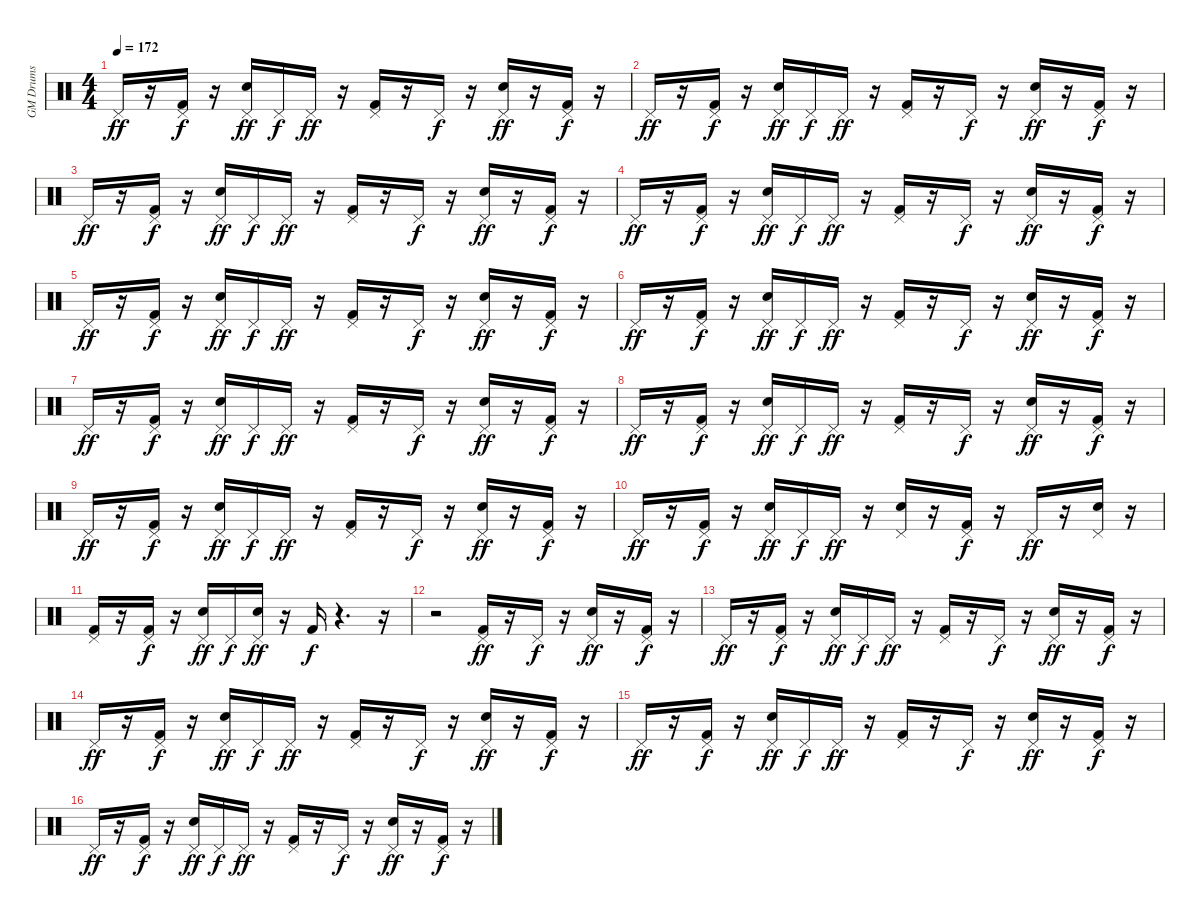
\track ("GM Drums" "GM Drums") {instrument percussion}
\staff {score}
\articulation defaults
\ts (4 4)
\tempo 172
\clef neutral
\ks c "Pedal Hi-Hat (hit)".16{dy ff}
r.16 ("Kick (hit) 2" "Pedal Hi-Hat (hit)").16{dy f} r.16 ("Snare (hit) 2" "Pedal Hi-Hat (hit)").16{dy ff} "Pedal Hi-Hat (hit)".16{dy f} "Pedal Hi-Hat (hit)".16{dy ff} r.16 ("Kick (hit) 2" "Pedal Hi-Hat (hit)").16 r.16 "Pedal Hi-Hat (hit)".16{dy f} r.16 ("Snare (hit) 2" "Pedal Hi-Hat (hit)").16{dy ff} r.16 ("Kick (hit) 2" "Pedal Hi-Hat (hit)").16{dy f} r.16 |
"Pedal Hi-Hat (hit)".16{dy ff} r.16 ("Kick (hit) 2" "Pedal Hi-Hat (hit)").16{dy f} r.16 ("Snare (hit) 2" "Pedal Hi-Hat (hit)").16{dy ff} "Pedal Hi-Hat (hit)".16{dy f} "Pedal Hi-Hat (hit)".16{dy ff} r.16 ("Kick (hit) 2" "Pedal Hi-Hat (hit)").16 r.16 "Pedal Hi-Hat (hit)".16{dy f} r.16 ("Snare (hit) 2" "Pedal Hi-Hat (hit)").16{dy ff} r.16 ("Kick (hit) 2" "Pedal Hi-Hat (hit)").16{dy f} r.16 |
"Pedal Hi-Hat (hit)".16{dy ff} r.16 ("Kick (hit) 2" "Pedal Hi-Hat (hit)").16{dy f} r.16 ("Snare (hit) 2" "Pedal Hi-Hat (hit)").16{dy ff} "Pedal Hi-Hat (hit)".16{dy f} "Pedal Hi-Hat (hit)".16{dy ff} r.16 ("Kick (hit) 2" "Pedal Hi-Hat (hit)").16 r.16 "Pedal Hi-Hat (hit)".16{dy f} r.16 ("Snare (hit) 2" "Pedal Hi-Hat (hit)").16{dy ff} r.16 ("Kick (hit) 2" "Pedal Hi-Hat (hit)").16{dy f} r.16 |
"Pedal Hi-Hat (hit)".16{dy ff} r.16 ("Kick (hit) 2" "Pedal Hi-Hat (hit)").16{dy f} r.16 ("Snare (hit) 2" "Pedal Hi-Hat (hit)").16{dy ff} "Pedal Hi-Hat (hit)".16{dy f} "Pedal Hi-Hat (hit)".16{dy ff} r.16 ("Kick (hit) 2" "Pedal Hi-Hat (hit)").16 r.16 "Pedal Hi-Hat (hit)".16{dy f} r.16 ("Snare (hit) 2" "Pedal Hi-Hat (hit)").16{dy ff} r.16 ("Kick (hit) 2" "Pedal Hi-Hat (hit)").16{dy f} r.16 |
"Pedal Hi-Hat (hit)".16{dy ff} r.16 ("Kick (hit) 2" "Pedal Hi-Hat (hit)").16{dy f} r.16 ("Snare (hit) 2" "Pedal Hi-Hat (hit)").16{dy ff} "Pedal Hi-Hat (hit)".16{dy f} "Pedal Hi-Hat (hit)".16{dy ff} r.16 ("Kick (hit) 2" "Pedal Hi-Hat (hit)").16 r.16 "Pedal Hi-Hat (hit)".16{dy f} r.16 ("Snare (hit) 2" "Pedal Hi-Hat (hit)").16{dy ff} r.16 ("Kick (hit) 2" "Pedal Hi-Hat (hit)").16{dy f} r.16 |
"Pedal Hi-Hat (hit)".16{dy ff} r.16 ("Kick (hit) 2" "Pedal Hi-Hat (hit)").16{dy f} r.16 ("Snare (hit) 2" "Pedal Hi-Hat (hit)").16{dy ff} "Pedal Hi-Hat (hit)".16{dy f} "Pedal Hi-Hat (hit)".16{dy ff} r.16 ("Kick (hit) 2" "Pedal Hi-Hat (hit)").16 r.16 "Pedal Hi-Hat (hit)".16{dy f} r.16 ("Snare (hit) 2" "Pedal Hi-Hat (hit)").16{dy ff} r.16 ("Kick (hit) 2" "Pedal Hi-Hat (hit)").16{dy f} r.16 |
"Pedal Hi-Hat (hit)".16{dy ff} r.16 ("Kick (hit) 2" "Pedal Hi-Hat (hit)").16{dy f} r.16 ("Snare (hit) 2" "Pedal Hi-Hat (hit)").16{dy ff} "Pedal Hi-Hat (hit)".16{dy f} "Pedal Hi-Hat (hit)".16{dy ff} r.16 ("Kick (hit) 2" "Pedal Hi-Hat (hit)").16 r.16 "Pedal Hi-Hat (hit)".16{dy f} r.16 ("Snare (hit) 2" "Pedal Hi-Hat (hit)").16{dy ff} r.16 ("Kick (hit) 2" "Pedal Hi-Hat (hit)").16{dy f} r.16 |
"Pedal Hi-Hat (hit)".16{dy ff} r.16 ("Kick (hit) 2" "Pedal Hi-Hat (hit)").16{dy f} r.16 ("Snare (hit) 2" "Pedal Hi-Hat (hit)").16{dy ff} "Pedal Hi-Hat (hit)".16{dy f} "Pedal Hi-Hat (hit)".16{dy ff} r.16 ("Kick (hit) 2" "Pedal Hi-Hat (hit)").16 r.16 "Pedal Hi-Hat (hit)".16{dy f} r.16 ("Snare (hit) 2" "Pedal Hi-Hat (hit)").16{dy ff} r.16 ("Kick (hit) 2" "Pedal Hi-Hat (hit)").16{dy f} r.16 |
"Pedal Hi-Hat (hit)".16{dy ff} r.16 ("Kick (hit) 2" "Pedal Hi-Hat (hit)").16{dy f} r.16 ("Snare (hit) 2" "Pedal Hi-Hat (hit)").16{dy ff} "Pedal Hi-Hat (hit)".16{dy f} "Pedal Hi-Hat (hit)".16{dy ff} r.16 ("Kick (hit) 2" "Pedal Hi-Hat (hit)").16 r.16 "Pedal Hi-Hat (hit)".16{dy f} r.16 ("Snare (hit) 2" "Pedal Hi-Hat (hit)").16{dy ff} r.16 ("Kick (hit) 2" "Pedal Hi-Hat (hit)").16{dy f} r.16 |
"Pedal Hi-Hat (hit)".16{dy ff} r.16 ("Kick (hit) 2" "Pedal Hi-Hat (hit)").16{dy f} r.16 ("Snare (hit) 2" "Pedal Hi-Hat (hit)").16{dy ff} "Pedal Hi-Hat (hit)".16{dy f} "Pedal Hi-Hat (hit)".16{dy ff} r.16 ("Snare (hit) 2" "Pedal Hi-Hat (hit)").16 r.16 ("Kick (hit) 2" "Pedal Hi-Hat (hit)").16{dy f} r.16 "Pedal Hi-Hat (hit)".16{dy ff} r.16 ("Snare (hit) 2" "Pedal Hi-Hat (hit)").16 r.16 |
("Kick (hit) 2" "Pedal Hi-Hat (hit)").16 r.16 ("Kick (hit) 2" "Pedal Hi-Hat (hit)").16{dy f} r.16 ("Snare (hit) 2" "Pedal Hi-Hat (hit)").16{dy ff} "Pedal Hi-Hat (hit)".16{dy f} ("Snare (hit) 2" "Pedal Hi-Hat (hit)").16{dy ff} r.16 "Kick (hit) 2".16{dy f} r.4{d} r.16 |
r.2 ("Kick (hit) 2" "Pedal Hi-Hat (hit)").16{dy ff} r.16 "Pedal Hi-Hat (hit)".16{dy f} r.16 ("Snare (hit) 2" "Pedal Hi-Hat (hit)").16{dy ff} r.16 ("Kick (hit) 2" "Pedal Hi-Hat (hit)").16{dy f} r.16 |
"Pedal Hi-Hat (hit)".16{dy ff} r.16 ("Kick (hit) 2" "Pedal Hi-Hat (hit)").16{dy f} r.16 ("Snare (hit) 2" "Pedal Hi-Hat (hit)").16{dy ff} "Pedal Hi-Hat (hit)".16{dy f} "Pedal Hi-Hat (hit)".16{dy ff} r.16 ("Kick (hit) 2" "Pedal Hi-Hat (hit)").16 r.16 "Pedal Hi-Hat (hit)".16{dy f} r.16 ("Snare (hit) 2" "Pedal Hi-Hat (hit)").16{dy ff} r.16 ("Kick (hit) 2" "Pedal Hi-Hat (hit)").16{dy f} r.16 |
"Pedal Hi-Hat (hit)".16{dy ff} r.16 ("Kick (hit) 2" "Pedal Hi-Hat (hit)").16{dy f} r.16 ("Snare (hit) 2" "Pedal Hi-Hat (hit)").16{dy ff} "Pedal Hi-Hat (hit)".16{dy f} "Pedal Hi-Hat (hit)".16{dy ff} r.16 ("Kick (hit) 2" "Pedal Hi-Hat (hit)").16 r.16 "Pedal Hi-Hat (hit)".16{dy f} r.16 ("Snare (hit) 2" "Pedal Hi-Hat (hit)").16{dy ff} r.16 ("Kick (hit) 2" "Pedal Hi-Hat (hit)").16{dy f} r.16 |
"Pedal Hi-Hat (hit)".16{dy ff} r.16 ("Kick (hit) 2" "Pedal Hi-Hat (hit)").16{dy f} r.16 ("Snare (hit) 2" "Pedal Hi-Hat (hit)").16{dy ff} "Pedal Hi-Hat (hit)".16{dy f} "Pedal Hi-Hat (hit)".16{dy ff} r.16 ("Kick (hit) 2" "Pedal Hi-Hat (hit)").16 r.16 "Pedal Hi-Hat (hit)".16{dy f} r.16 ("Snare (hit) 2" "Pedal Hi-Hat (hit)").16{dy ff} r.16 ("Kick (hit) 2" "Pedal Hi-Hat (hit)").16{dy f} r.16 |
"Pedal Hi-Hat (hit)".16{dy ff} r.16 ("Kick (hit) 2" "Pedal Hi-Hat (hit)").16{dy f} r.16 ("Snare (hit) 2" "Pedal Hi-Hat (hit)").16{dy ff} "Pedal Hi-Hat (hit)".16{dy f} "Pedal Hi-Hat (hit)".16{dy ff} r.16 ("Kick (hit) 2" "Pedal Hi-Hat (hit)").16 r.16 "Pedal Hi-Hat (hit)".16{dy f} r.16 ("Snare (hit) 2" "Pedal Hi-Hat (hit)").16{dy ff} r.16 ("Kick (hit) 2" "Pedal Hi-Hat (hit)").16{dy f} r.16
